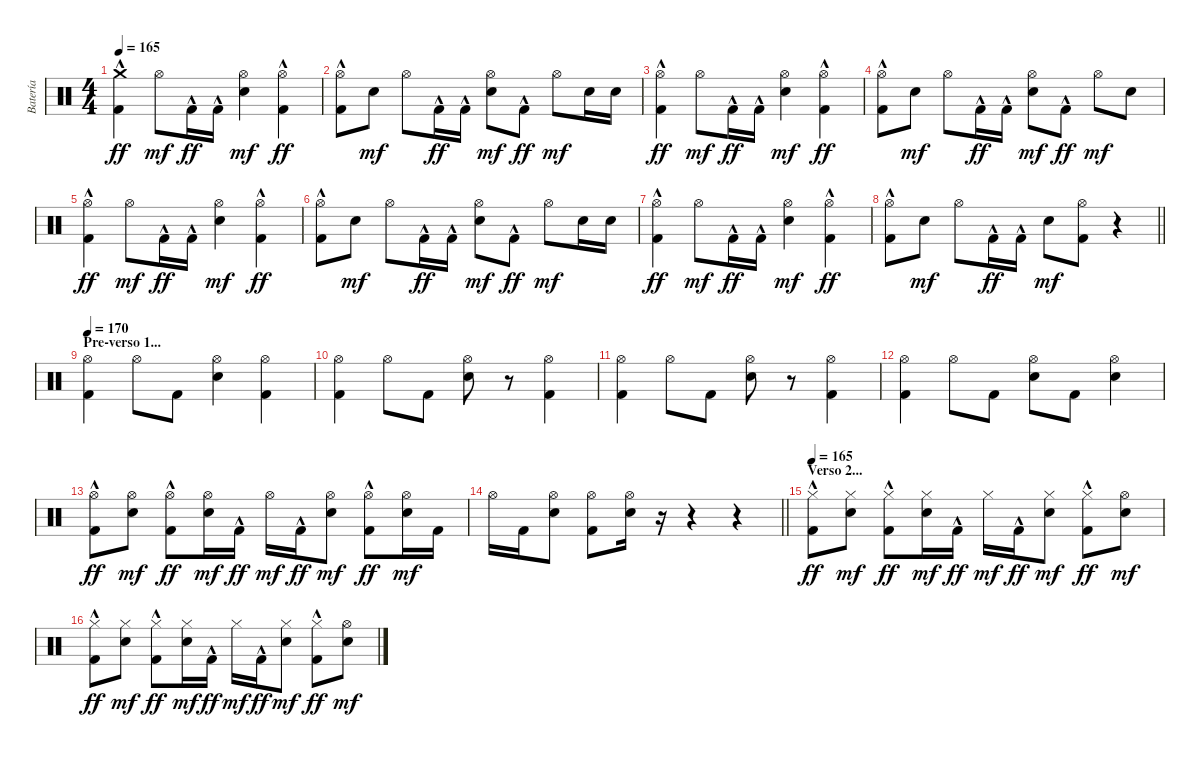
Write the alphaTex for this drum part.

\track ("Batería" "Batería") {instrument percussion}
\staff {score}
\articulation defaults
\ts (4 4)
\tempo 165
\clef neutral
\ks c
("Crash medium (hit)" "Kick (hit) 2"{hac}).4{dy ff} "Hi-Hat (open)".8{dy mf} "Kick (hit) 2"{hac}.16{dy ff} "Kick (hit) 2"{hac}.16 ("Hi-Hat (open)" "Snare (hit) 2").4{dy mf} ("Hi-Hat (open)" "Kick (hit) 2"{hac}).4{dy ff} |
("Hi-Hat (open)" "Kick (hit) 2"{hac}).8 "Snare (hit) 2".8{dy mf} "Hi-Hat (open)".8 "Kick (hit) 2"{hac}.16{dy ff} "Kick (hit) 2"{hac}.16 ("Hi-Hat (open)" "Snare (hit) 2").8{dy mf} "Kick (hit) 2"{hac}.8{dy ff} "Hi-Hat (open)".8{dy mf} "Snare (hit) 2".16 "Snare (hit) 2".16 |
("Hi-Hat (open)" "Kick (hit) 2"{hac}).4{dy ff} "Hi-Hat (open)".8{dy mf} "Kick (hit) 2"{hac}.16{dy ff} "Kick (hit) 2"{hac}.16 ("Hi-Hat (open)" "Snare (hit) 2").4{dy mf} ("Hi-Hat (open)" "Kick (hit) 2"{hac}).4{dy ff} |
("Hi-Hat (open)" "Kick (hit) 2"{hac}).8 "Snare (hit) 2".8{dy mf} "Hi-Hat (open)".8 "Kick (hit) 2"{hac}.16{dy ff} "Kick (hit) 2"{hac}.16 ("Hi-Hat (open)" "Snare (hit) 2").8{dy mf} "Kick (hit) 2"{hac}.8{dy ff} "Hi-Hat (open)".8{dy mf} "Snare (hit) 2".8 |
("Hi-Hat (open)" "Kick (hit) 2"{hac}).4{dy ff} "Hi-Hat (open)".8{dy mf} "Kick (hit) 2"{hac}.16{dy ff} "Kick (hit) 2"{hac}.16 ("Hi-Hat (open)" "Snare (hit) 2").4{dy mf} ("Hi-Hat (open)" "Kick (hit) 2"{hac}).4{dy ff} |
("Hi-Hat (open)" "Kick (hit) 2"{hac}).8 "Snare (hit) 2".8{dy mf} "Hi-Hat (open)".8 "Kick (hit) 2"{hac}.16{dy ff} "Kick (hit) 2"{hac}.16 ("Hi-Hat (open)" "Snare (hit) 2").8{dy mf} "Kick (hit) 2"{hac}.8{dy ff} "Hi-Hat (open)".8{dy mf} "Snare (hit) 2".16 "Snare (hit) 2".16 |
("Hi-Hat (open)" "Kick (hit) 2"{hac}).4{dy ff} "Hi-Hat (open)".8{dy mf} "Kick (hit) 2"{hac}.16{dy ff} "Kick (hit) 2"{hac}.16 ("Hi-Hat (open)" "Snare (hit) 2").4{dy mf} ("Hi-Hat (open)" "Kick (hit) 2"{hac}).4{dy ff} |
\barLineRight lightlight
("Hi-Hat (open)" "Kick (hit) 2"{hac}).8 "Snare (hit) 2".8{dy mf} "Hi-Hat (open)".8 "Kick (hit) 2"{hac}.16{dy ff} "Kick (hit) 2"{hac}.16 "Snare (hit) 2".8{dy mf} ("Hi-Hat (open)" "Kick (hit) 2").8 r.4 |
\section ("" "Pre-verso 1...")
\tempo 170
("Hi-Hat (open)" "Kick (hit) 2").4 "Hi-Hat (open)".8 "Kick (hit) 2".8 ("Hi-Hat (open)" "Snare (hit) 2").4 ("Hi-Hat (open)" "Kick (hit) 2").4 |
("Hi-Hat (open)" "Kick (hit) 2").4 "Hi-Hat (open)".8 "Kick (hit) 2".8 ("Hi-Hat (open)" "Snare (hit) 2").8 r.8 ("Hi-Hat (open)" "Kick (hit) 2").4 |
("Hi-Hat (open)" "Kick (hit) 2").4 "Hi-Hat (open)".8 "Kick (hit) 2".8 ("Hi-Hat (open)" "Snare (hit) 2").8 r.8 ("Hi-Hat (open)" "Kick (hit) 2").4 |
("Hi-Hat (open)" "Kick (hit) 2").4 "Hi-Hat (open)".8 "Kick (hit) 2".8 ("Hi-Hat (open)" "Snare (hit) 2").8 "Kick (hit) 2".8 ("Hi-Hat (open)" "Snare (hit) 2").4 |
("Hi-Hat (open)" "Kick (hit) 2"{hac}).8{dy ff} ("Hi-Hat (open)" "Snare (hit) 2").8{dy mf} ("Hi-Hat (open)" "Kick (hit) 2"{hac}).8{dy ff} ("Hi-Hat (open)" "Snare (hit) 2").16{dy mf} "Kick (hit) 2"{hac}.16{dy ff} "Hi-Hat (open)".16{dy mf} "Kick (hit) 2"{hac}.16{dy ff} ("Hi-Hat (open)" "Snare (hit) 2").8{dy mf} ("Hi-Hat (open)" "Kick (hit) 2"{hac}).8{dy ff} ("Hi-Hat (open)" "Snare (hit) 2").16{dy mf} "Kick (hit) 2".16 |
\barLineRight lightlight "Hi-Hat (open)".16 "Kick (hit) 2".16
("Hi-Hat (open)" "Snare (hit) 2").8 ("Hi-Hat (open)" "Kick (hit) 2").8 ("Hi-Hat (open)" "Snare (hit) 2").16 r.16 r.4 r.4 |
\section ("" "Verso 2...")
\tempo 165
("Hi-Hat (closed)" "Kick (hit) 2"{hac}).8{dy ff} ("Hi-Hat (closed)" "Snare (hit) 2").8{dy mf} ("Hi-Hat (closed)" "Kick (hit) 2"{hac}).8{dy ff} ("Hi-Hat (closed)" "Snare (hit) 2").16{dy mf} "Kick (hit) 2"{hac}.16{dy ff} "Hi-Hat (closed)".16{dy mf} "Kick (hit) 2"{hac}.16{dy ff} ("Hi-Hat (closed)" "Snare (hit) 2").8{dy mf} ("Hi-Hat (closed)" "Kick (hit) 2"{hac}).8{dy ff} ("Hi-Hat (open)" "Snare (hit) 2").8{dy mf} |
("Hi-Hat (closed)" "Kick (hit) 2"{hac}).8{dy ff} ("Hi-Hat (closed)" "Snare (hit) 2").8{dy mf} ("Hi-Hat (closed)" "Kick (hit) 2"{hac}).8{dy ff} ("Hi-Hat (closed)" "Snare (hit) 2").16{dy mf} "Kick (hit) 2"{hac}.16{dy ff} "Hi-Hat (closed)".16{dy mf} "Kick (hit) 2"{hac}.16{dy ff} ("Hi-Hat (closed)" "Snare (hit) 2").8{dy mf} ("Hi-Hat (closed)" "Kick (hit) 2"{hac}).8{dy ff} ("Hi-Hat (open)" "Snare (hit) 2").8{dy mf}
